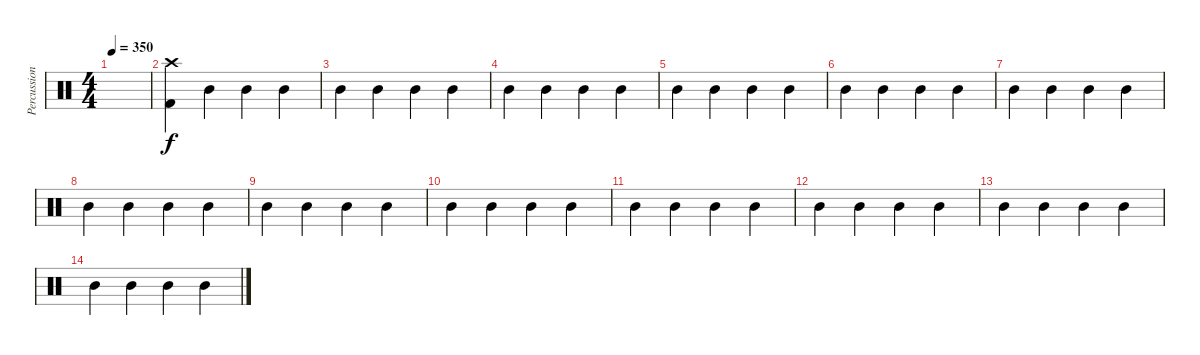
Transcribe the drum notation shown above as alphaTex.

\track ("Percussion" "Percussion") {instrument percussion}
\staff {score}
\articulation defaults
\ts (4 4)
\tempo 350
\clef neutral
\ks c
|
("Kick (hit) 2" "Crash high (hit)").4 "Mid Tom (hit)".4 "Mid Tom (hit)".4 "Mid Tom (hit)".4 |
"Mid Tom (hit)".4 "Mid Tom (hit)".4 "Mid Tom (hit)".4 "Mid Tom (hit)".4 |
"Mid Tom (hit)".4 "Mid Tom (hit)".4 "Mid Tom (hit)".4 "Mid Tom (hit)".4 |
"Mid Tom (hit)".4 "Mid Tom (hit)".4 "Mid Tom (hit)".4 "Mid Tom (hit)".4 |
"Mid Tom (hit)".4 "Mid Tom (hit)".4 "Mid Tom (hit)".4 "Mid Tom (hit)".4 |
"Mid Tom (hit)".4 "Mid Tom (hit)".4 "Mid Tom (hit)".4 "Mid Tom (hit)".4 |
"Mid Tom (hit)".4 "Mid Tom (hit)".4 "Mid Tom (hit)".4 "Mid Tom (hit)".4 |
"Mid Tom (hit)".4 "Mid Tom (hit)".4 "Mid Tom (hit)".4 "Mid Tom (hit)".4 |
"Mid Tom (hit)".4 "Mid Tom (hit)".4 "Mid Tom (hit)".4 "Mid Tom (hit)".4 |
"Mid Tom (hit)".4 "Mid Tom (hit)".4 "Mid Tom (hit)".4 "Mid Tom (hit)".4 |
"Mid Tom (hit)".4 "Mid Tom (hit)".4 "Mid Tom (hit)".4 "Mid Tom (hit)".4 |
"Mid Tom (hit)".4 "Mid Tom (hit)".4 "Mid Tom (hit)".4 "Mid Tom (hit)".4 |
"Mid Tom (hit)".4 "Mid Tom (hit)".4 "Mid Tom (hit)".4 "Mid Tom (hit)".4
